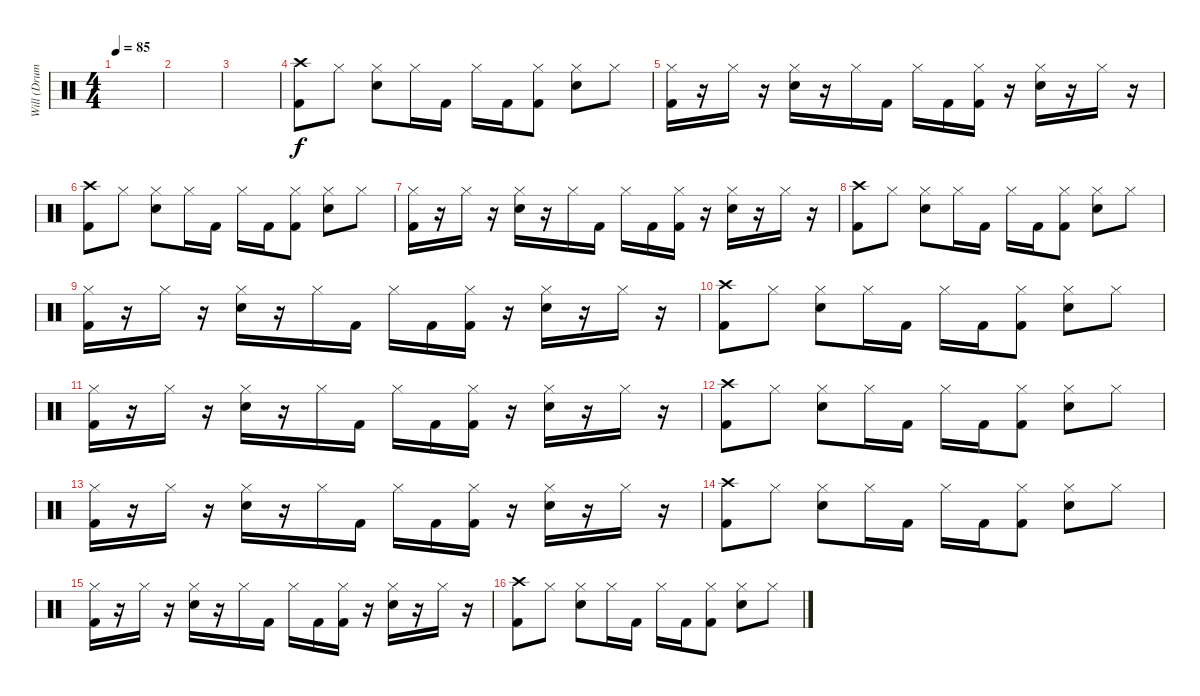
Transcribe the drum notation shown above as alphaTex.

\track ("Will (Drums)" "Will (Drum") {instrument percussion}
\staff {score}
\articulation defaults
\ts (4 4)
\tempo 85
\clef neutral
\ks c
|
|
|
("Crash high (hit)" "Kick (hit) 2").8{volume 14} "Hi-Hat (closed)".8 ("Hi-Hat (closed)" "Snare (hit) 2").8 "Hi-Hat (closed)".16 "Kick (hit) 2".16 "Hi-Hat (closed)".16 "Kick (hit) 2".16 ("Hi-Hat (closed)" "Kick (hit) 2").8 ("Hi-Hat (closed)" "Snare (hit) 2").8 "Hi-Hat (closed)".8 |
("Hi-Hat (closed)" "Kick (hit) 2").16 r.16 "Hi-Hat (closed)".16 r.16 ("Hi-Hat (closed)" "Snare (hit) 2").16 r.16 "Hi-Hat (closed)".16 "Kick (hit) 2".16 "Hi-Hat (closed)".16 "Kick (hit) 2".16 ("Hi-Hat (closed)" "Kick (hit) 2").16 r.16 ("Hi-Hat (closed)" "Snare (hit) 2").16 r.16 "Hi-Hat (closed)".16 r.16 |
("Crash high (hit)" "Kick (hit) 2").8 "Hi-Hat (closed)".8 ("Hi-Hat (closed)" "Snare (hit) 2").8 "Hi-Hat (closed)".16 "Kick (hit) 2".16 "Hi-Hat (closed)".16 "Kick (hit) 2".16 ("Hi-Hat (closed)" "Kick (hit) 2").8 ("Hi-Hat (closed)" "Snare (hit) 2").8 "Hi-Hat (closed)".8 |
("Hi-Hat (closed)" "Kick (hit) 2").16 r.16 "Hi-Hat (closed)".16 r.16 ("Hi-Hat (closed)" "Snare (hit) 2").16 r.16 "Hi-Hat (closed)".16 "Kick (hit) 2".16 "Hi-Hat (closed)".16 "Kick (hit) 2".16 ("Hi-Hat (closed)" "Kick (hit) 2").16 r.16 ("Hi-Hat (closed)" "Snare (hit) 2").16 r.16 "Hi-Hat (closed)".16 r.16 |
("Crash high (hit)" "Kick (hit) 2").8 "Hi-Hat (closed)".8 ("Hi-Hat (closed)" "Snare (hit) 2").8 "Hi-Hat (closed)".16 "Kick (hit) 2".16 "Hi-Hat (closed)".16 "Kick (hit) 2".16 ("Hi-Hat (closed)" "Kick (hit) 2").8 ("Hi-Hat (closed)" "Snare (hit) 2").8 "Hi-Hat (closed)".8 |
("Hi-Hat (closed)" "Kick (hit) 2").16 r.16 "Hi-Hat (closed)".16 r.16 ("Hi-Hat (closed)" "Snare (hit) 2").16 r.16 "Hi-Hat (closed)".16 "Kick (hit) 2".16 "Hi-Hat (closed)".16 "Kick (hit) 2".16 ("Hi-Hat (closed)" "Kick (hit) 2").16 r.16 ("Hi-Hat (closed)" "Snare (hit) 2").16 r.16 "Hi-Hat (closed)".16 r.16 |
("Crash high (hit)" "Kick (hit) 2").8 "Hi-Hat (closed)".8 ("Hi-Hat (closed)" "Snare (hit) 2").8 "Hi-Hat (closed)".16 "Kick (hit) 2".16 "Hi-Hat (closed)".16 "Kick (hit) 2".16 ("Hi-Hat (closed)" "Kick (hit) 2").8 ("Hi-Hat (closed)" "Snare (hit) 2").8 "Hi-Hat (closed)".8 |
("Hi-Hat (closed)" "Kick (hit) 2").16 r.16 "Hi-Hat (closed)".16 r.16 ("Hi-Hat (closed)" "Snare (hit) 2").16 r.16 "Hi-Hat (closed)".16 "Kick (hit) 2".16 "Hi-Hat (closed)".16 "Kick (hit) 2".16 ("Hi-Hat (closed)" "Kick (hit) 2").16 r.16 ("Hi-Hat (closed)" "Snare (hit) 2").16 r.16 "Hi-Hat (closed)".16 r.16 |
("Crash high (hit)" "Kick (hit) 2").8 "Hi-Hat (closed)".8 ("Hi-Hat (closed)" "Snare (hit) 2").8 "Hi-Hat (closed)".16 "Kick (hit) 2".16 "Hi-Hat (closed)".16 "Kick (hit) 2".16 ("Hi-Hat (closed)" "Kick (hit) 2").8 ("Hi-Hat (closed)" "Snare (hit) 2").8 "Hi-Hat (closed)".8 |
("Hi-Hat (closed)" "Kick (hit) 2").16 r.16 "Hi-Hat (closed)".16 r.16 ("Hi-Hat (closed)" "Snare (hit) 2").16 r.16 "Hi-Hat (closed)".16 "Kick (hit) 2".16 "Hi-Hat (closed)".16 "Kick (hit) 2".16 ("Hi-Hat (closed)" "Kick (hit) 2").16 r.16 ("Hi-Hat (closed)" "Snare (hit) 2").16 r.16 "Hi-Hat (closed)".16 r.16 |
("Crash high (hit)" "Kick (hit) 2").8 "Hi-Hat (closed)".8 ("Hi-Hat (closed)" "Snare (hit) 2").8 "Hi-Hat (closed)".16 "Kick (hit) 2".16 "Hi-Hat (closed)".16 "Kick (hit) 2".16 ("Hi-Hat (closed)" "Kick (hit) 2").8 ("Hi-Hat (closed)" "Snare (hit) 2").8 "Hi-Hat (closed)".8 |
("Hi-Hat (closed)" "Kick (hit) 2").16 r.16 "Hi-Hat (closed)".16 r.16 ("Hi-Hat (closed)" "Snare (hit) 2").16 r.16 "Hi-Hat (closed)".16 "Kick (hit) 2".16 "Hi-Hat (closed)".16 "Kick (hit) 2".16 ("Hi-Hat (closed)" "Kick (hit) 2").16 r.16 ("Hi-Hat (closed)" "Snare (hit) 2").16 r.16 "Hi-Hat (closed)".16 r.16 |
("Crash high (hit)" "Kick (hit) 2").8 "Hi-Hat (closed)".8 ("Hi-Hat (closed)" "Snare (hit) 2").8 "Hi-Hat (closed)".16 "Kick (hit) 2".16 "Hi-Hat (closed)".16 "Kick (hit) 2".16 ("Hi-Hat (closed)" "Kick (hit) 2").8 ("Hi-Hat (closed)" "Snare (hit) 2").8 "Hi-Hat (closed)".8
